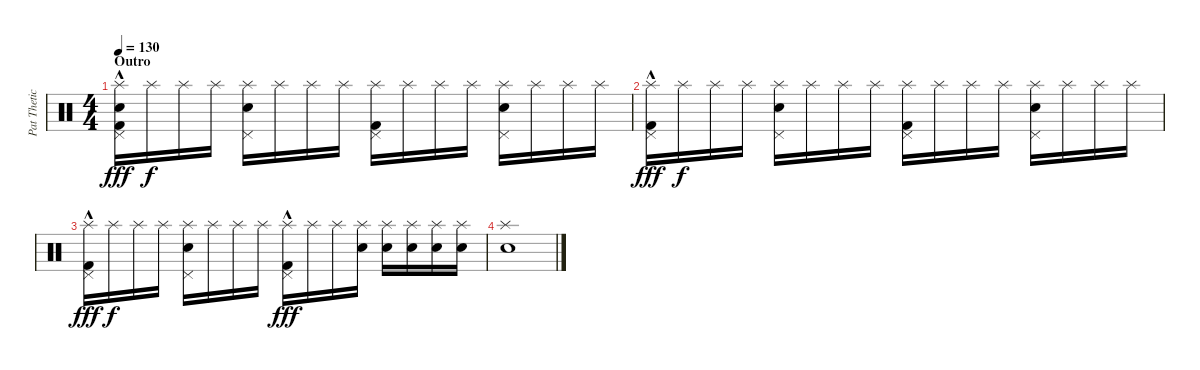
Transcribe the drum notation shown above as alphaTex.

\track ("Pat Thetic Drums" "Pat Thetic") {instrument percussion}
\staff {score}
\articulation defaults
\ts (4 4)
\section ("" "Outro")
\tempo 130
\clef neutral
\ks c
("Splash (hit)" "Pedal Hi-Hat (hit)" "Snare (hit) 2" "Kick (hit) 2"{hac}).16{dy fff} "Splash (hit)".16{dy f} "Splash (hit)".16 "Splash (hit)".16 ("Splash (hit)" "Pedal Hi-Hat (hit)" "Snare (hit) 2").16 "Splash (hit)".16 "Splash (hit)".16 "Splash (hit)".16 ("Splash (hit)" "Pedal Hi-Hat (hit)" "Kick (hit) 2").16 "Splash (hit)".16 "Splash (hit)".16 "Splash (hit)".16 ("Splash (hit)" "Pedal Hi-Hat (hit)" "Snare (hit) 2").16 "Splash (hit)".16 "Splash (hit)".16 "Splash (hit)".16 |
("Splash (hit)" "Pedal Hi-Hat (hit)" "Kick (hit) 2"{hac}).16{dy fff} "Splash (hit)".16{dy f} "Splash (hit)".16 "Splash (hit)".16 ("Splash (hit)" "Pedal Hi-Hat (hit)" "Snare (hit) 2").16 "Splash (hit)".16 "Splash (hit)".16 "Splash (hit)".16 ("Splash (hit)" "Pedal Hi-Hat (hit)" "Kick (hit) 2").16 "Splash (hit)".16 "Splash (hit)".16 "Splash (hit)".16 ("Splash (hit)" "Pedal Hi-Hat (hit)" "Snare (hit) 2").16 "Splash (hit)".16 "Splash (hit)".16 "Splash (hit)".16 |
("Splash (hit)" "Pedal Hi-Hat (hit)" "Kick (hit) 2"{hac}).16{dy fff} "Splash (hit)".16{dy f} "Splash (hit)".16 "Splash (hit)".16 ("Splash (hit)" "Pedal Hi-Hat (hit)" "Snare (hit) 2").16 "Splash (hit)".16 "Splash (hit)".16 "Splash (hit)".16 ("Splash (hit)" "Pedal Hi-Hat (hit)"{hac} "Kick (hit) 2").16{dy fff} "Splash (hit)".16 "Splash (hit)".16 ("Splash (hit)" "Snare (hit) 2").16 ("Splash (hit)" "Snare (hit) 2").16 ("Splash (hit)" "Snare (hit) 2").16 ("Splash (hit)" "Snare (hit) 2").16 ("Splash (hit)" "Snare (hit) 2").16 |
("Splash (hit)" "Snare (hit) 2").1
